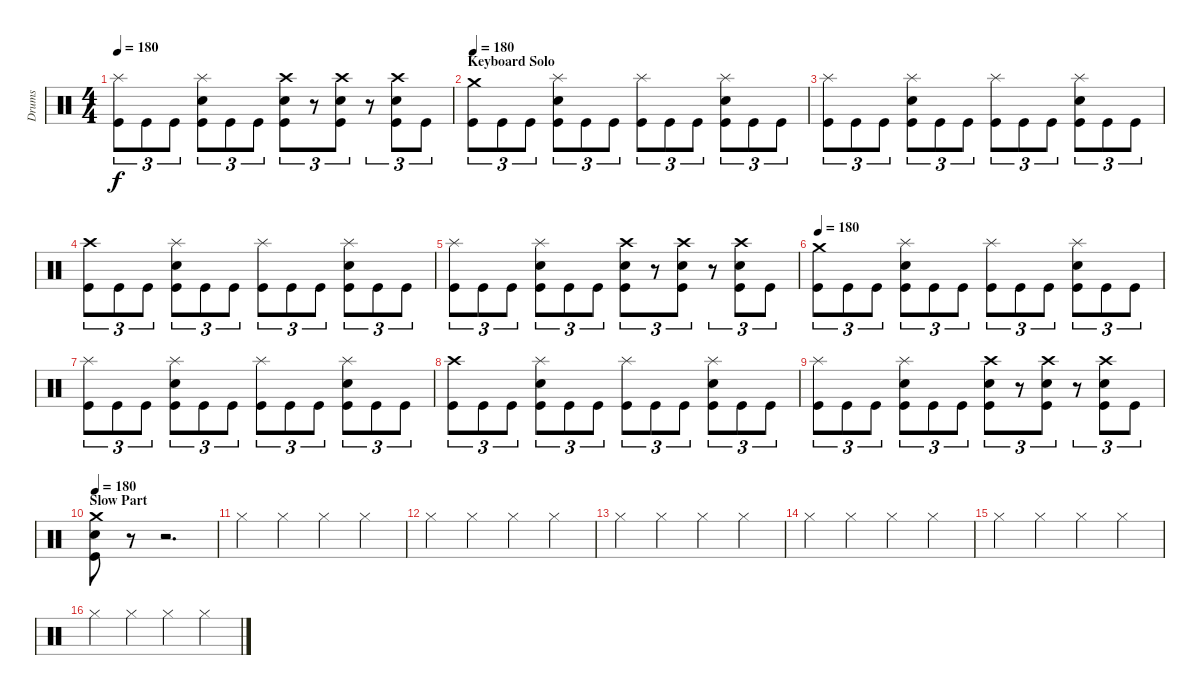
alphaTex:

\track ("Drums" "Drums") {instrument percussion}
\staff {score}
\articulation defaults
\ts (4 4)
\tempo 180
\clef neutral
\ks c
("Splash (hit)" "Kick (hit)").8{tu (3 2) dy f} "Kick (hit)".8{tu (3 2)} "Kick (hit)".8{tu (3 2)} ("Splash (hit)" "Electric Snare (hit)" "Kick (hit)").8{tu (3 2)} "Kick (hit)".8{tu (3 2)} "Kick (hit)".8{tu (3 2)} ("Crash high (hit)" "Electric Snare (hit)" "Kick (hit)").8{tu (3 2)} r.8{tu (3 2)} ("Crash high (hit)" "Electric Snare (hit)" "Kick (hit)").8{tu (3 2)} r.8{tu (3 2)} ("Crash high (hit)" "Electric Snare (hit)" "Kick (hit)").8{tu (3 2)} "Kick (hit)".8{tu (3 2)} |
\section ("" "Keyboard Solo")
\tempo 180
("Crash medium (hit)" "Kick (hit)").8{tu (3 2)} "Kick (hit)".8{tu (3 2)} "Kick (hit)".8{tu (3 2)} ("Splash (hit)" "Electric Snare (hit)" "Kick (hit)").8{tu (3 2)} "Kick (hit)".8{tu (3 2)} "Kick (hit)".8{tu (3 2)} ("Splash (hit)" "Kick (hit)").8{tu (3 2)} "Kick (hit)".8{tu (3 2)} "Kick (hit)".8{tu (3 2)} ("Splash (hit)" "Electric Snare (hit)" "Kick (hit)").8{tu (3 2)} "Kick (hit)".8{tu (3 2)} "Kick (hit)".8{tu (3 2)} |
("Splash (hit)" "Kick (hit)").8{tu (3 2)} "Kick (hit)".8{tu (3 2)} "Kick (hit)".8{tu (3 2)} ("Splash (hit)" "Electric Snare (hit)" "Kick (hit)").8{tu (3 2)} "Kick (hit)".8{tu (3 2)} "Kick (hit)".8{tu (3 2)} ("Splash (hit)" "Kick (hit)").8{tu (3 2)} "Kick (hit)".8{tu (3 2)} "Kick (hit)".8{tu (3 2)} ("Splash (hit)" "Electric Snare (hit)" "Kick (hit)").8{tu (3 2)} "Kick (hit)".8{tu (3 2)} "Kick (hit)".8{tu (3 2)} |
("Crash high (hit)" "Kick (hit)").8{tu (3 2)} "Kick (hit)".8{tu (3 2)} "Kick (hit)".8{tu (3 2)} ("Splash (hit)" "Electric Snare (hit)" "Kick (hit)").8{tu (3 2)} "Kick (hit)".8{tu (3 2)} "Kick (hit)".8{tu (3 2)} ("Splash (hit)" "Kick (hit)").8{tu (3 2)} "Kick (hit)".8{tu (3 2)} "Kick (hit)".8{tu (3 2)} ("Splash (hit)" "Electric Snare (hit)" "Kick (hit)").8{tu (3 2)} "Kick (hit)".8{tu (3 2)} "Kick (hit)".8{tu (3 2)} |
("Splash (hit)" "Kick (hit)").8{tu (3 2)} "Kick (hit)".8{tu (3 2)} "Kick (hit)".8{tu (3 2)} ("Splash (hit)" "Electric Snare (hit)" "Kick (hit)").8{tu (3 2)} "Kick (hit)".8{tu (3 2)} "Kick (hit)".8{tu (3 2)} ("Crash high (hit)" "Electric Snare (hit)" "Kick (hit)").8{tu (3 2)} r.8{tu (3 2)} ("Crash high (hit)" "Electric Snare (hit)" "Kick (hit)").8{tu (3 2)} r.8{tu (3 2)} ("Crash high (hit)" "Electric Snare (hit)" "Kick (hit)").8{tu (3 2)} "Kick (hit)".8{tu (3 2)} |
\tempo 180
("Crash medium (hit)" "Kick (hit)").8{tu (3 2)} "Kick (hit)".8{tu (3 2)} "Kick (hit)".8{tu (3 2)} ("Splash (hit)" "Electric Snare (hit)" "Kick (hit)").8{tu (3 2)} "Kick (hit)".8{tu (3 2)} "Kick (hit)".8{tu (3 2)} ("Splash (hit)" "Kick (hit)").8{tu (3 2)} "Kick (hit)".8{tu (3 2)} "Kick (hit)".8{tu (3 2)} ("Splash (hit)" "Electric Snare (hit)" "Kick (hit)").8{tu (3 2)} "Kick (hit)".8{tu (3 2)} "Kick (hit)".8{tu (3 2)} |
("Splash (hit)" "Kick (hit)").8{tu (3 2)} "Kick (hit)".8{tu (3 2)} "Kick (hit)".8{tu (3 2)} ("Splash (hit)" "Electric Snare (hit)" "Kick (hit)").8{tu (3 2)} "Kick (hit)".8{tu (3 2)} "Kick (hit)".8{tu (3 2)} ("Splash (hit)" "Kick (hit)").8{tu (3 2)} "Kick (hit)".8{tu (3 2)} "Kick (hit)".8{tu (3 2)} ("Splash (hit)" "Electric Snare (hit)" "Kick (hit)").8{tu (3 2)} "Kick (hit)".8{tu (3 2)} "Kick (hit)".8{tu (3 2)} |
("Crash high (hit)" "Kick (hit)").8{tu (3 2)} "Kick (hit)".8{tu (3 2)} "Kick (hit)".8{tu (3 2)} ("Splash (hit)" "Electric Snare (hit)" "Kick (hit)").8{tu (3 2)} "Kick (hit)".8{tu (3 2)} "Kick (hit)".8{tu (3 2)} ("Splash (hit)" "Kick (hit)").8{tu (3 2)} "Kick (hit)".8{tu (3 2)} "Kick (hit)".8{tu (3 2)} ("Splash (hit)" "Electric Snare (hit)" "Kick (hit)").8{tu (3 2)} "Kick (hit)".8{tu (3 2)} "Kick (hit)".8{tu (3 2)} |
("Splash (hit)" "Kick (hit)").8{tu (3 2)} "Kick (hit)".8{tu (3 2)} "Kick (hit)".8{tu (3 2)} ("Splash (hit)" "Electric Snare (hit)" "Kick (hit)").8{tu (3 2)} "Kick (hit)".8{tu (3 2)} "Kick (hit)".8{tu (3 2)} ("Crash high (hit)" "Electric Snare (hit)" "Kick (hit)").8{tu (3 2)} r.8{tu (3 2)} ("Crash high (hit)" "Electric Snare (hit)" "Kick (hit)").8{tu (3 2)} r.8{tu (3 2)} ("Crash high (hit)" "Electric Snare (hit)" "Kick (hit)").8{tu (3 2)} "Kick (hit)".8{tu (3 2)} |
\section ("" "Slow Part")
\tempo 180
("Crash medium (hit)" "Electric Snare (hit)" "Kick (hit)").8 r.8 r.2{d} |
"Hi-Hat (closed)".4 "Hi-Hat (closed)".4 "Hi-Hat (closed)".4 "Hi-Hat (closed)".4 |
"Hi-Hat (closed)".4 "Hi-Hat (closed)".4 "Hi-Hat (closed)".4 "Hi-Hat (closed)".4 |
"Hi-Hat (closed)".4 "Hi-Hat (closed)".4 "Hi-Hat (closed)".4 "Hi-Hat (closed)".4 |
"Hi-Hat (closed)".4 "Hi-Hat (closed)".4 "Hi-Hat (closed)".4 "Hi-Hat (closed)".4 |
"Hi-Hat (closed)".4 "Hi-Hat (closed)".4 "Hi-Hat (closed)".4 "Hi-Hat (closed)".4 |
"Hi-Hat (closed)".4 "Hi-Hat (closed)".4 "Hi-Hat (closed)".4 "Hi-Hat (closed)".4
